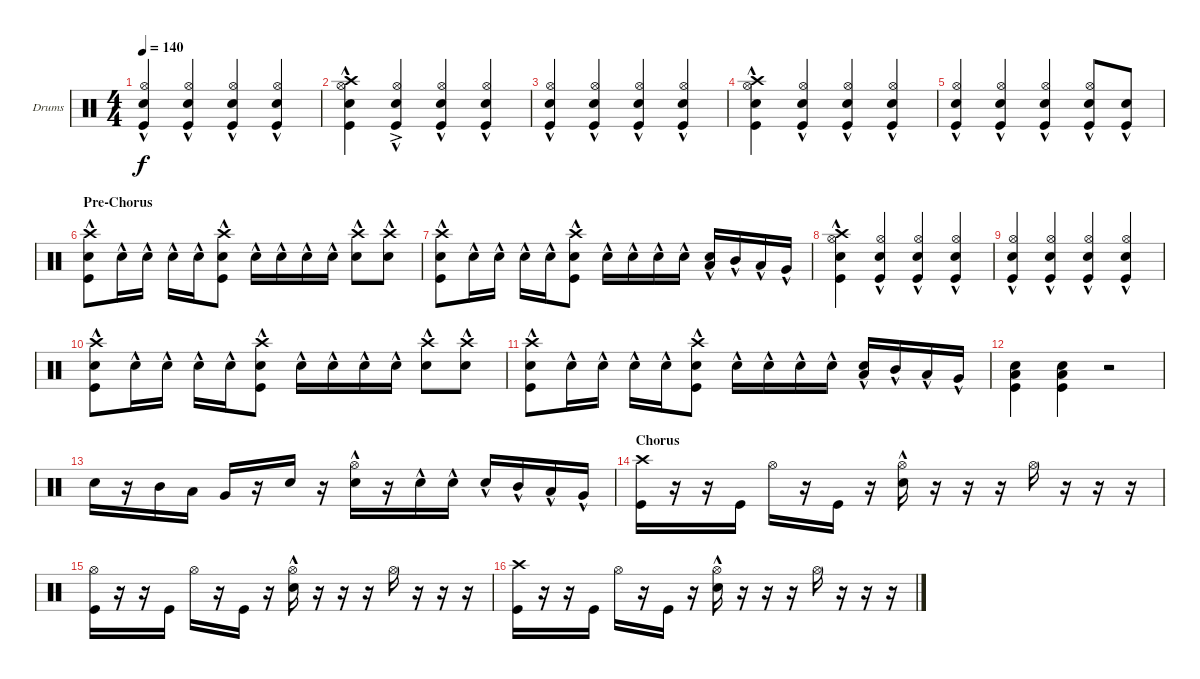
\defaultSystemsLayout 4
\bracketExtendMode groupsimilarinstruments
\firstSystemTrackNameOrientation horizontal
\otherSystemsTrackNameOrientation horizontal
\track ("Drumkit - Paul" "Drums") {instrument percussion}
\staff {score}
\articulation defaults
\ts (4 4)
\tempo 140
\clef neutral
\ks c
("Snare (hit) 2"{hac} "Hi-Hat (open)" "Kick (hit)").4{dy f} ("Hi-Hat (open)" "Snare (hit) 2"{hac} "Kick (hit)").4 ("Hi-Hat (open)" "Snare (hit) 2"{hac} "Kick (hit)").4 ("Hi-Hat (open)" "Snare (hit) 2"{hac} "Kick (hit)").4 |
("Snare (hit) 2"{hac} "Hi-Hat (open)" "Crash high (hit)" "Kick (hit)").4 ("Hi-Hat (open)"{ac} "Snare (hit) 2"{hac} "Kick (hit)").4 ("Hi-Hat (open)" "Snare (hit) 2"{hac} "Kick (hit)").4 ("Hi-Hat (open)" "Snare (hit) 2"{hac} "Kick (hit)").4 |
("Snare (hit) 2"{hac} "Hi-Hat (open)" "Kick (hit)").4 ("Hi-Hat (open)" "Snare (hit) 2"{hac} "Kick (hit)").4 ("Hi-Hat (open)" "Snare (hit) 2"{hac} "Kick (hit)").4 ("Hi-Hat (open)" "Snare (hit) 2"{hac} "Kick (hit)").4 |
("Snare (hit) 2"{hac} "Hi-Hat (open)" "Crash high (hit)" "Kick (hit)").4 ("Hi-Hat (open)" "Snare (hit) 2"{hac} "Kick (hit)").4 ("Hi-Hat (open)" "Snare (hit) 2"{hac} "Kick (hit)").4 ("Hi-Hat (open)" "Snare (hit) 2"{hac} "Kick (hit)").4 |
("Snare (hit) 2"{hac} "Hi-Hat (open)" "Kick (hit)").4 ("Hi-Hat (open)" "Snare (hit) 2"{hac} "Kick (hit)").4 ("Hi-Hat (open)" "Snare (hit) 2"{hac} "Kick (hit)").4 ("Hi-Hat (open)" "Snare (hit) 2"{hac} "Kick (hit)").8 ("Snare (hit) 2"{hac} "Kick (hit)").8 |
\section ("" "Pre-Chorus")
("Crash high (hit)" "Snare (hit) 2"{hac} "Kick (hit)").8 "Snare (hit) 2"{hac}.16 "Snare (hit) 2"{hac}.16 "Snare (hit) 2"{hac}.16 "Snare (hit) 2"{hac}.16 ("Snare (hit) 2"{hac} "Kick (hit)" "Crash high (hit)").8 "Snare (hit) 2"{hac}.16 "Snare (hit) 2"{hac}.16 "Snare (hit) 2"{hac}.16 "Snare (hit) 2"{hac}.16 ("Snare (hit) 2"{hac} "Crash high (hit)").8 ("Snare (hit) 2"{hac} "Crash high (hit)").8 |
("Snare (hit) 2"{hac} "Kick (hit)" "Crash high (hit)").8 "Snare (hit) 2"{hac}.16 "Snare (hit) 2"{hac}.16 "Snare (hit) 2"{hac}.16 "Snare (hit) 2"{hac}.16 ("Snare (hit) 2"{hac} "Kick (hit)" "Crash high (hit)").8 "Snare (hit) 2"{hac}.16 "Snare (hit) 2"{hac}.16 "Snare (hit) 2"{hac}.16 "Snare (hit) 2"{hac}.16 ("Snare (hit) 2"{hac} "Low Tom (hit)"{hac}).16 "Mid Tom (hit)"{hac}.16 "Low Tom (hit)"{hac}.16 "Very Low Tom (hit)"{hac}.16 |
("Snare (hit) 2"{hac} "Hi-Hat (open)" "Crash high (hit)" "Kick (hit)").4 ("Hi-Hat (open)" "Snare (hit) 2"{hac} "Kick (hit)").4 ("Hi-Hat (open)" "Snare (hit) 2"{hac} "Kick (hit)").4 ("Hi-Hat (open)" "Snare (hit) 2"{hac} "Kick (hit)").4 |
("Snare (hit) 2"{hac} "Hi-Hat (open)" "Kick (hit)").4 ("Hi-Hat (open)" "Snare (hit) 2"{hac} "Kick (hit)").4 ("Hi-Hat (open)" "Snare (hit) 2"{hac} "Kick (hit)").4 ("Hi-Hat (open)" "Snare (hit) 2"{hac} "Kick (hit)").4 |
("Crash high (hit)" "Snare (hit) 2"{hac} "Kick (hit)").8 "Snare (hit) 2"{hac}.16 "Snare (hit) 2"{hac}.16 "Snare (hit) 2"{hac}.16 "Snare (hit) 2"{hac}.16 ("Snare (hit) 2"{hac} "Kick (hit)" "Crash high (hit)").8 "Snare (hit) 2"{hac}.16 "Snare (hit) 2"{hac}.16 "Snare (hit) 2"{hac}.16 "Snare (hit) 2"{hac}.16 ("Snare (hit) 2"{hac} "Crash high (hit)").8 ("Snare (hit) 2"{hac} "Crash high (hit)").8 |
("Snare (hit) 2"{hac} "Kick (hit)" "Crash high (hit)").8 "Snare (hit) 2"{hac}.16 "Snare (hit) 2"{hac}.16 "Snare (hit) 2"{hac}.16 "Snare (hit) 2"{hac}.16 ("Snare (hit) 2"{hac} "Kick (hit)" "Crash high (hit)").8 "Snare (hit) 2"{hac}.16 "Snare (hit) 2"{hac}.16 "Snare (hit) 2"{hac}.16 "Snare (hit) 2"{hac}.16 ("Snare (hit) 2"{hac} "Low Tom (hit)"{hac}).16 "Mid Tom (hit)"{hac}.16 "Low Tom (hit)"{hac}.16 "Very Low Tom (hit)"{hac}.16 |
("Kick (hit)" "Snare (hit) 2" "Low Tom (hit)").4 ("Snare (hit) 2" "Low Tom (hit)" "Kick (hit)").4 r.2 |
"Snare (hit) 2".16 r.16 "Mid Tom (hit)".16 "Low Tom (hit)".16 "Very Low Tom (hit)".16 r.16 "Snare (hit) 2".16 r.16 ("Snare (hit) 2"{hac} "Hi-Hat (open)").16 r.16 "Snare (hit) 2"{hac}.16 "Snare (hit) 2"{hac}.16 "Snare (hit) 2"{hac}.16 "Mid Tom (hit)"{hac}.16 "Low Tom (hit)"{hac}.16 "Very Low Tom (hit)"{hac}.16 |
\section ("" "Chorus")
("Crash high (hit)" "Kick (hit)").16 r.16 r.16 "Kick (hit)".16 "Hi-Hat (open)".16 r.16 "Kick (hit)".16 r.16 ("Snare (hit) 2"{hac} "Hi-Hat (open)").16 r.16 r.16 r.16 "Hi-Hat (open)".16 r.16 r.16 r.16 |
("Kick (hit)" "Hi-Hat (open)").16 r.16 r.16 "Kick (hit)".16 "Hi-Hat (open)".16 r.16 "Kick (hit)".16 r.16 ("Snare (hit) 2"{hac} "Hi-Hat (open)").16 r.16 r.16 r.16 "Hi-Hat (open)".16 r.16 r.16 r.16 |
("Crash high (hit)" "Kick (hit)").16 r.16 r.16 "Kick (hit)".16 "Hi-Hat (open)".16 r.16 "Kick (hit)".16 r.16 ("Snare (hit) 2"{hac} "Hi-Hat (open)").16 r.16 r.16 r.16 "Hi-Hat (open)".16 r.16 r.16 r.16
